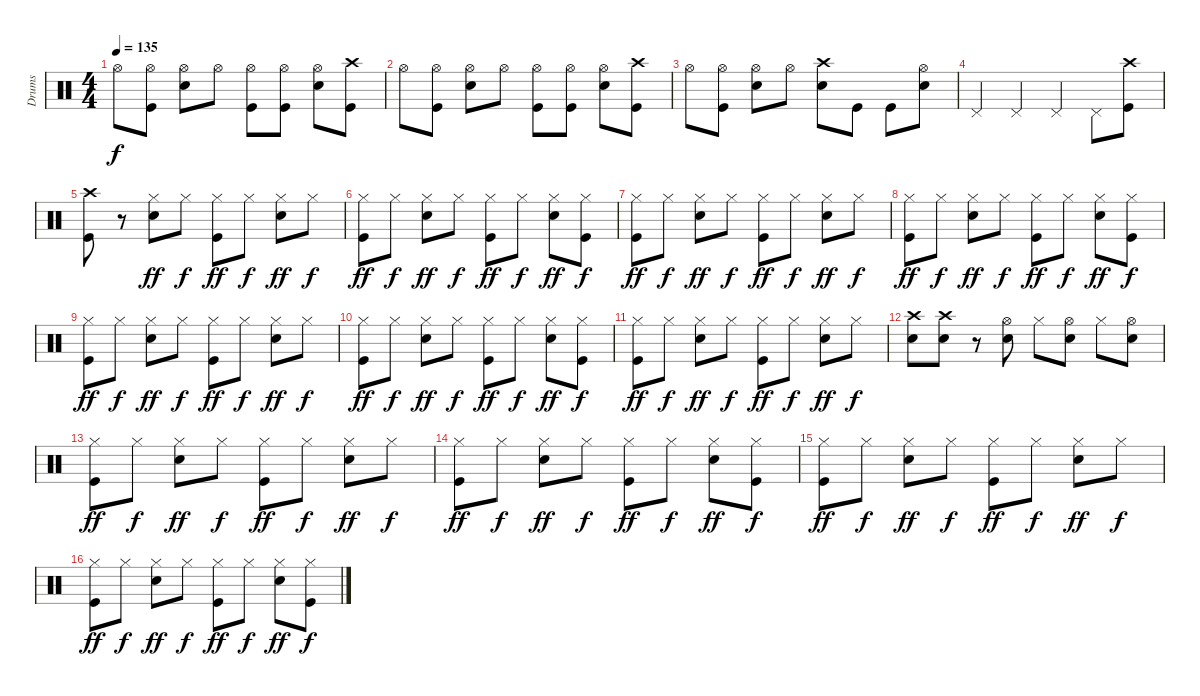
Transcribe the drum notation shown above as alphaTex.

\track ("Drums" "Drums") {instrument percussion}
\staff {score}
\articulation defaults
\ts (4 4)
\tempo 135
\clef neutral
\ks c "Hi-Hat (open)".8{dy f}
("Hi-Hat (open)" "Kick (hit)").8 ("Hi-Hat (open)" "Snare (hit) 2").8 "Hi-Hat (open)".8 ("Hi-Hat (open)" "Kick (hit)").8 ("Hi-Hat (open)" "Kick (hit)").8 ("Hi-Hat (open)" "Snare (hit) 2").8 ("Crash high (hit)" "Kick (hit)").8 |
"Hi-Hat (open)".8 ("Hi-Hat (open)" "Kick (hit)").8 ("Hi-Hat (open)" "Snare (hit) 2").8 "Hi-Hat (open)".8 ("Hi-Hat (open)" "Kick (hit)").8 ("Hi-Hat (open)" "Kick (hit)").8 ("Hi-Hat (open)" "Snare (hit) 2").8 ("Crash high (hit)" "Kick (hit)").8 |
"Hi-Hat (open)".8 ("Hi-Hat (open)" "Kick (hit)").8 ("Hi-Hat (open)" "Snare (hit) 2").8 "Hi-Hat (open)".8 ("Crash high (hit)" "Snare (hit) 2").8 "Kick (hit)".8 "Kick (hit)".8 ("Hi-Hat (open)" "Snare (hit) 2").8 |
"Pedal Hi-Hat (hit)".4 "Pedal Hi-Hat (hit)".4 "Pedal Hi-Hat (hit)".4 "Pedal Hi-Hat (hit)".8 ("Crash high (hit)" "Kick (hit)").8 |
("Crash high (hit)" "Kick (hit)").8 r.8 ("Hi-Hat (closed)" "Snare (hit) 2").8{dy ff} "Hi-Hat (closed)".8{dy f} ("Hi-Hat (closed)" "Kick (hit)").8{dy ff} "Hi-Hat (closed)".8{dy f} ("Hi-Hat (closed)" "Snare (hit) 2").8{dy ff} "Hi-Hat (closed)".8{dy f} |
("Hi-Hat (closed)" "Kick (hit)").8{dy ff} "Hi-Hat (closed)".8{dy f} ("Hi-Hat (closed)" "Snare (hit) 2").8{dy ff} "Hi-Hat (closed)".8{dy f} ("Hi-Hat (closed)" "Kick (hit)").8{dy ff} "Hi-Hat (closed)".8{dy f} ("Hi-Hat (closed)" "Snare (hit) 2").8{dy ff} ("Hi-Hat (closed)" "Kick (hit)").8{dy f} |
("Hi-Hat (closed)" "Kick (hit)").8{dy ff} "Hi-Hat (closed)".8{dy f} ("Hi-Hat (closed)" "Snare (hit) 2").8{dy ff} "Hi-Hat (closed)".8{dy f} ("Hi-Hat (closed)" "Kick (hit)").8{dy ff} "Hi-Hat (closed)".8{dy f} ("Hi-Hat (closed)" "Snare (hit) 2").8{dy ff} "Hi-Hat (closed)".8{dy f} |
("Hi-Hat (closed)" "Kick (hit)").8{dy ff} "Hi-Hat (closed)".8{dy f} ("Hi-Hat (closed)" "Snare (hit) 2").8{dy ff} "Hi-Hat (closed)".8{dy f} ("Hi-Hat (closed)" "Kick (hit)").8{dy ff} "Hi-Hat (closed)".8{dy f} ("Hi-Hat (closed)" "Snare (hit) 2").8{dy ff} ("Hi-Hat (closed)" "Kick (hit)").8{dy f} |
("Hi-Hat (closed)" "Kick (hit)").8{dy ff} "Hi-Hat (closed)".8{dy f} ("Hi-Hat (closed)" "Snare (hit) 2").8{dy ff} "Hi-Hat (closed)".8{dy f} ("Hi-Hat (closed)" "Kick (hit)").8{dy ff} "Hi-Hat (closed)".8{dy f} ("Hi-Hat (closed)" "Snare (hit) 2").8{dy ff} "Hi-Hat (closed)".8{dy f} |
("Hi-Hat (closed)" "Kick (hit)").8{dy ff} "Hi-Hat (closed)".8{dy f} ("Hi-Hat (closed)" "Snare (hit) 2").8{dy ff} "Hi-Hat (closed)".8{dy f} ("Hi-Hat (closed)" "Kick (hit)").8{dy ff} "Hi-Hat (closed)".8{dy f} ("Hi-Hat (closed)" "Snare (hit) 2").8{dy ff} ("Hi-Hat (closed)" "Kick (hit)").8{dy f} |
("Hi-Hat (closed)" "Kick (hit)").8{dy ff} "Hi-Hat (closed)".8{dy f} ("Hi-Hat (closed)" "Snare (hit) 2").8{dy ff} "Hi-Hat (closed)".8{dy f} ("Hi-Hat (closed)" "Kick (hit)").8{dy ff} "Hi-Hat (closed)".8{dy f} ("Hi-Hat (closed)" "Snare (hit) 2").8{dy ff} "Hi-Hat (closed)".8{dy f} |
("Crash high (hit)" "Snare (hit) 2").8 ("Crash high (hit)" "Snare (hit) 2").8 r.8 ("Hi-Hat (open)" "Snare (hit) 2").8 "Hi-Hat (closed)".8 ("Hi-Hat (open)" "Snare (hit) 2").8 "Hi-Hat (closed)".8 ("Hi-Hat (open)" "Snare (hit) 2").8 |
("Hi-Hat (closed)" "Kick (hit)").8{dy ff} "Hi-Hat (closed)".8{dy f} ("Hi-Hat (closed)" "Snare (hit) 2").8{dy ff} "Hi-Hat (closed)".8{dy f} ("Hi-Hat (closed)" "Kick (hit)").8{dy ff} "Hi-Hat (closed)".8{dy f} ("Hi-Hat (closed)" "Snare (hit) 2").8{dy ff} "Hi-Hat (closed)".8{dy f} |
("Hi-Hat (closed)" "Kick (hit)").8{dy ff} "Hi-Hat (closed)".8{dy f} ("Hi-Hat (closed)" "Snare (hit) 2").8{dy ff} "Hi-Hat (closed)".8{dy f} ("Hi-Hat (closed)" "Kick (hit)").8{dy ff} "Hi-Hat (closed)".8{dy f} ("Hi-Hat (closed)" "Snare (hit) 2").8{dy ff} ("Hi-Hat (closed)" "Kick (hit)").8{dy f} |
("Hi-Hat (closed)" "Kick (hit)").8{dy ff} "Hi-Hat (closed)".8{dy f} ("Hi-Hat (closed)" "Snare (hit) 2").8{dy ff} "Hi-Hat (closed)".8{dy f} ("Hi-Hat (closed)" "Kick (hit)").8{dy ff} "Hi-Hat (closed)".8{dy f} ("Hi-Hat (closed)" "Snare (hit) 2").8{dy ff} "Hi-Hat (closed)".8{dy f} |
("Hi-Hat (closed)" "Kick (hit)").8{dy ff} "Hi-Hat (closed)".8{dy f} ("Hi-Hat (closed)" "Snare (hit) 2").8{dy ff} "Hi-Hat (closed)".8{dy f} ("Hi-Hat (closed)" "Kick (hit)").8{dy ff} "Hi-Hat (closed)".8{dy f} ("Hi-Hat (closed)" "Snare (hit) 2").8{dy ff} ("Hi-Hat (closed)" "Kick (hit)").8{dy f}
